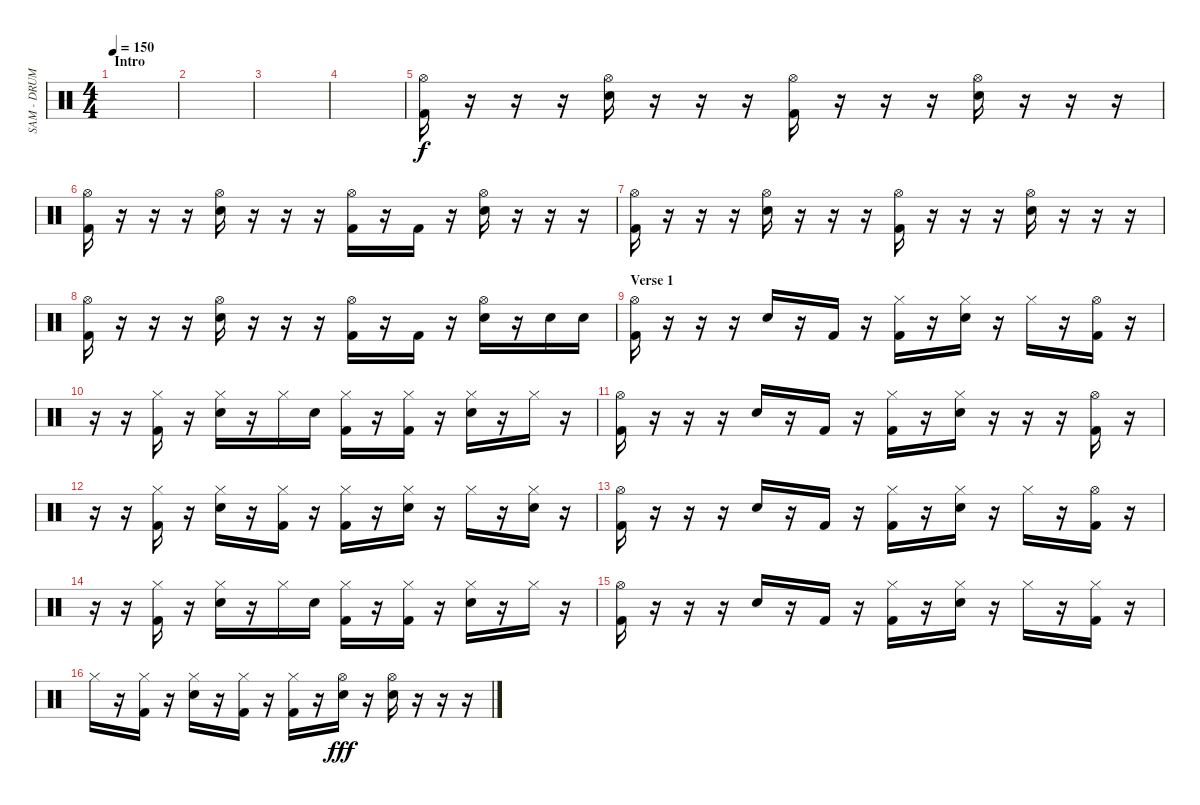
\track ("SAM - DRUMS" "SAM - DRUM") {instrument percussion}
\staff {score}
\articulation defaults
\ts (4 4)
\section ("" "Intro")
\tempo 150
\clef neutral
\ks c
|
|
|
|
("Hi-Hat (open)" "Kick (hit) 2").16 r.16 r.16 r.16 ("Hi-Hat (open)" "Snare (hit) 2").16 r.16 r.16 r.16 ("Hi-Hat (open)" "Kick (hit) 2").16 r.16 r.16 r.16 ("Hi-Hat (open)" "Snare (hit) 2").16 r.16 r.16 r.16 |
("Hi-Hat (open)" "Kick (hit) 2").16 r.16 r.16 r.16 ("Hi-Hat (open)" "Snare (hit) 2").16 r.16 r.16 r.16 ("Hi-Hat (open)" "Kick (hit) 2").16 r.16 "Kick (hit) 2".16 r.16 ("Hi-Hat (open)" "Snare (hit) 2").16 r.16 r.16 r.16 |
("Hi-Hat (open)" "Kick (hit) 2").16 r.16 r.16 r.16 ("Hi-Hat (open)" "Snare (hit) 2").16 r.16 r.16 r.16 ("Hi-Hat (open)" "Kick (hit) 2").16 r.16 r.16 r.16 ("Hi-Hat (open)" "Snare (hit) 2").16 r.16 r.16 r.16 |
("Hi-Hat (open)" "Kick (hit) 2").16 r.16 r.16 r.16 ("Hi-Hat (open)" "Snare (hit) 2").16 r.16 r.16 r.16 ("Hi-Hat (open)" "Kick (hit) 2").16 r.16 "Kick (hit) 2".16 r.16 ("Hi-Hat (open)" "Snare (hit) 2").16 r.16 "Snare (hit) 2".16 "Snare (hit) 2".16 |
\section ("" "Verse 1")
("Hi-Hat (open)" "Kick (hit) 2").16 r.16 r.16 r.16 "Snare (hit) 2".16 r.16 "Kick (hit) 2".16 r.16 ("Hi-Hat (closed)" "Kick (hit) 2").16 r.16 ("Hi-Hat (closed)" "Snare (hit) 2").16 r.16 "Hi-Hat (closed)".16 r.16 ("Hi-Hat (open)" "Kick (hit) 2").16 r.16 |
r.16 r.16 ("Hi-Hat (closed)" "Kick (hit) 2").16 r.16 ("Hi-Hat (closed)" "Snare (hit) 2").16 r.16 "Hi-Hat (closed)".16 "Snare (hit) 2".16 ("Hi-Hat (closed)" "Kick (hit) 2").16 r.16 ("Hi-Hat (closed)" "Kick (hit) 2").16 r.16 ("Hi-Hat (closed)" "Snare (hit) 2").16 r.16 "Hi-Hat (closed)".16 r.16 |
("Hi-Hat (open)" "Kick (hit) 2").16 r.16 r.16 r.16 "Snare (hit) 2".16 r.16 "Kick (hit) 2".16 r.16 ("Hi-Hat (closed)" "Kick (hit) 2").16 r.16 ("Hi-Hat (closed)" "Snare (hit) 2").16 r.16 r.16 r.16 ("Hi-Hat (open)" "Kick (hit) 2").16 r.16 |
r.16 r.16 ("Hi-Hat (closed)" "Kick (hit) 2").16 r.16 ("Hi-Hat (closed)" "Snare (hit) 2").16 r.16 ("Hi-Hat (closed)" "Kick (hit) 2").16 r.16 ("Hi-Hat (closed)" "Kick (hit) 2").16 r.16 ("Hi-Hat (closed)" "Snare (hit) 2").16 r.16 "Hi-Hat (closed)".16 r.16 ("Hi-Hat (closed)" "Snare (hit) 2").16 r.16 |
("Hi-Hat (open)" "Kick (hit) 2").16 r.16 r.16 r.16 "Snare (hit) 2".16 r.16 "Kick (hit) 2".16 r.16 ("Hi-Hat (closed)" "Kick (hit) 2").16 r.16 ("Hi-Hat (closed)" "Snare (hit) 2").16 r.16 "Hi-Hat (closed)".16 r.16 ("Hi-Hat (open)" "Kick (hit) 2").16 r.16 |
r.16 r.16 ("Hi-Hat (closed)" "Kick (hit) 2").16 r.16 ("Hi-Hat (closed)" "Snare (hit) 2").16 r.16 "Hi-Hat (closed)".16 "Snare (hit) 2".16 ("Hi-Hat (closed)" "Kick (hit) 2").16 r.16 ("Hi-Hat (closed)" "Kick (hit) 2").16 r.16 ("Hi-Hat (closed)" "Snare (hit) 2").16 r.16 "Hi-Hat (closed)".16 r.16 |
("Hi-Hat (open)" "Kick (hit) 2").16 r.16 r.16 r.16 "Snare (hit) 2".16 r.16 "Kick (hit) 2".16 r.16 ("Hi-Hat (closed)" "Kick (hit) 2").16 r.16 ("Hi-Hat (closed)" "Snare (hit) 2").16 r.16 "Hi-Hat (closed)".16 r.16 ("Hi-Hat (closed)" "Kick (hit) 2").16 r.16 |
"Hi-Hat (closed)".16 r.16 ("Hi-Hat (closed)" "Kick (hit) 2").16 r.16 ("Hi-Hat (closed)" "Snare (hit) 2").16 r.16 ("Hi-Hat (closed)" "Kick (hit) 2").16 r.16 ("Hi-Hat (closed)" "Kick (hit) 2").16 r.16 ("Hi-Hat (open)" "Snare (hit) 2").16{dy fff} r.16 ("Hi-Hat (open)" "Snare (hit) 2").16 r.16 r.16 r.16
